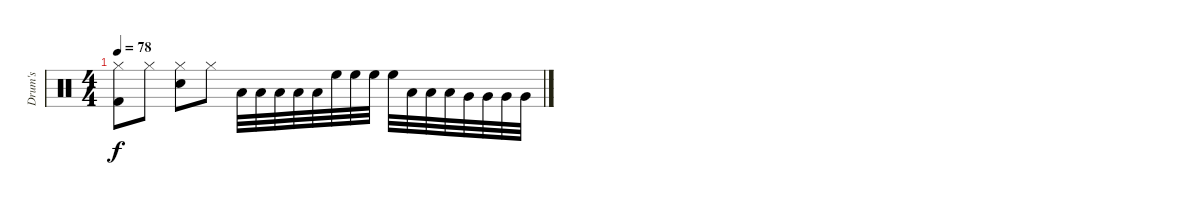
\track ("Drum's " "Drum's ") {instrument percussion}
\staff {score}
\articulation defaults
\ts (4 4)
\tempo 78
\clef neutral
\ks c
("Hi-Hat (closed)" "Kick (hit) 2").8{dy f} "Hi-Hat (closed)".8 ("Hi-Hat (closed)" "Snare (hit) 2").8 "Hi-Hat (closed)".8 "Low Tom (hit)".32 "Low Tom (hit)".32 "Low Tom (hit)".32 "Low Tom (hit)".32 "Low Tom (hit)".32 "High Floor Tom (hit)".32 "High Floor Tom (hit)".32 "High Floor Tom (hit)".32 "High Floor Tom (hit)".32 "Low Floor Tom (hit)".32 "Low Floor Tom (hit)".32 "Low Floor Tom (hit)".32 "Very Low Tom (hit)".32 "Very Low Tom (hit)".32 "Very Low Tom (hit)".32 "Very Low Tom (hit)".32
